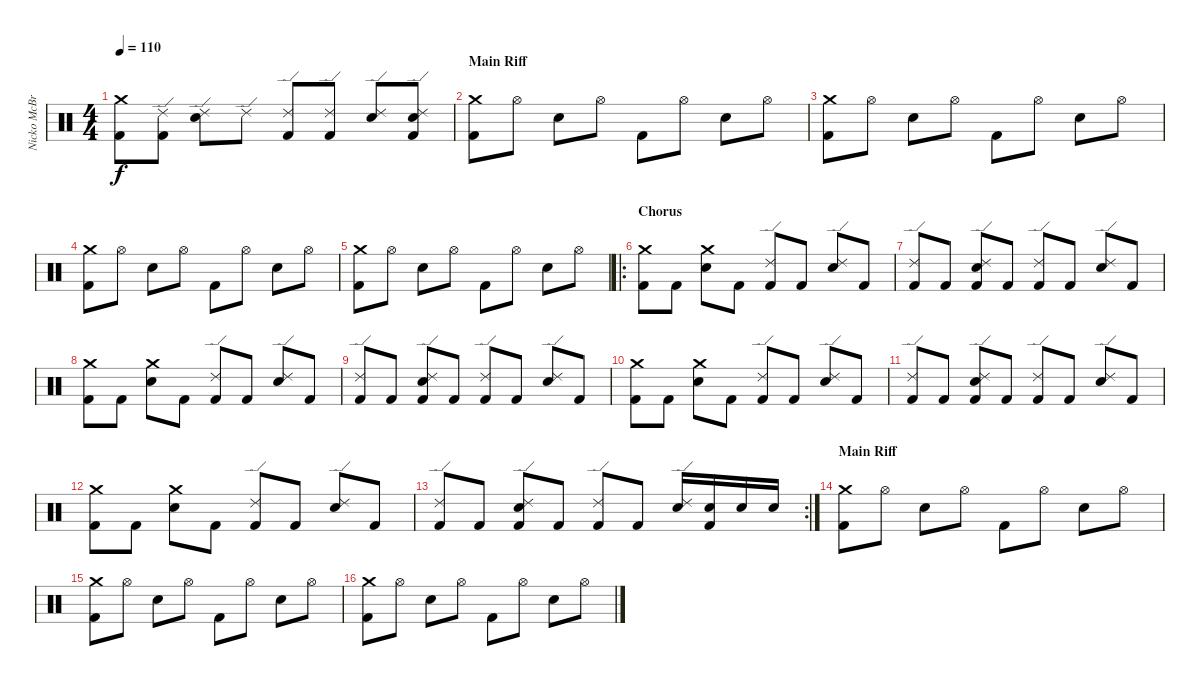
\track ("Nicko McBrain" "Nicko McBr") {instrument percussion}
\staff {score}
\articulation defaults
\ts (4 4)
\tempo 110
\clef neutral
\ks c
("Crash medium (hit)" "Kick (hit) 2").8{dy f} ("Ride (edge) 2" "Kick (hit) 2").8 ("Snare (hit) 2" "Ride (edge) 2").8 "Ride (edge) 2".8 ("Ride (edge) 2" "Kick (hit) 2").8 ("Ride (edge) 2" "Kick (hit) 2").8 ("Snare (hit) 2" "Ride (edge) 2").8 ("Snare (hit) 2" "Ride (edge) 2" "Kick (hit) 2").8 |
\section ("" "Main Riff")
("Crash medium (hit)" "Kick (hit) 2").8 "Hi-Hat (open)".8 "Snare (hit) 2".8 "Hi-Hat (open)".8 "Kick (hit) 2".8 "Hi-Hat (open)".8 "Snare (hit) 2".8 "Hi-Hat (open)".8 |
("Crash medium (hit)" "Kick (hit) 2").8 "Hi-Hat (open)".8 "Snare (hit) 2".8 "Hi-Hat (open)".8 "Kick (hit) 2".8 "Hi-Hat (open)".8 "Snare (hit) 2".8 "Hi-Hat (open)".8 |
("Crash medium (hit)" "Kick (hit) 2").8 "Hi-Hat (open)".8 "Snare (hit) 2".8 "Hi-Hat (open)".8 "Kick (hit) 2".8 "Hi-Hat (open)".8 "Snare (hit) 2".8 "Hi-Hat (open)".8 |
("Crash medium (hit)" "Kick (hit) 2").8 "Hi-Hat (open)".8 "Snare (hit) 2".8 "Hi-Hat (open)".8 "Kick (hit) 2".8 "Hi-Hat (open)".8 "Snare (hit) 2".8 "Hi-Hat (open)".8 |
\ro
\section ("" "Chorus")
("Crash medium (hit)" "Kick (hit) 2").8 "Kick (hit) 2".8 ("Snare (hit) 2" "Crash medium (hit)").8 "Kick (hit) 2".8 ("Ride (edge) 2" "Kick (hit) 2").8 "Kick (hit) 2".8 ("Snare (hit) 2" "Ride (edge) 2").8 "Kick (hit) 2".8 |
("Ride (edge) 2" "Kick (hit) 2").8 "Kick (hit) 2".8 ("Snare (hit) 2" "Ride (edge) 2" "Kick (hit) 2").8 "Kick (hit) 2".8 ("Ride (edge) 2" "Kick (hit) 2").8 "Kick (hit) 2".8 ("Snare (hit) 2" "Ride (edge) 2").8 "Kick (hit) 2".8 |
("Crash medium (hit)" "Kick (hit) 2").8 "Kick (hit) 2".8 ("Snare (hit) 2" "Crash medium (hit)").8 "Kick (hit) 2".8 ("Ride (edge) 2" "Kick (hit) 2").8 "Kick (hit) 2".8 ("Snare (hit) 2" "Ride (edge) 2").8 "Kick (hit) 2".8 |
("Ride (edge) 2" "Kick (hit) 2").8 "Kick (hit) 2".8 ("Snare (hit) 2" "Ride (edge) 2" "Kick (hit) 2").8 "Kick (hit) 2".8 ("Ride (edge) 2" "Kick (hit) 2").8 "Kick (hit) 2".8 ("Snare (hit) 2" "Ride (edge) 2").8 "Kick (hit) 2".8 |
("Crash medium (hit)" "Kick (hit) 2").8 "Kick (hit) 2".8 ("Snare (hit) 2" "Crash medium (hit)").8 "Kick (hit) 2".8 ("Ride (edge) 2" "Kick (hit) 2").8 "Kick (hit) 2".8 ("Snare (hit) 2" "Ride (edge) 2").8 "Kick (hit) 2".8 |
("Ride (edge) 2" "Kick (hit) 2").8 "Kick (hit) 2".8 ("Snare (hit) 2" "Ride (edge) 2" "Kick (hit) 2").8 "Kick (hit) 2".8 ("Ride (edge) 2" "Kick (hit) 2").8 "Kick (hit) 2".8 ("Snare (hit) 2" "Ride (edge) 2").8 "Kick (hit) 2".8 |
("Crash medium (hit)" "Kick (hit) 2").8 "Kick (hit) 2".8 ("Snare (hit) 2" "Crash medium (hit)").8 "Kick (hit) 2".8 ("Ride (edge) 2" "Kick (hit) 2").8 "Kick (hit) 2".8 ("Snare (hit) 2" "Ride (edge) 2").8 "Kick (hit) 2".8 |
\rc 2
("Ride (edge) 2" "Kick (hit) 2").8 "Kick (hit) 2".8 ("Snare (hit) 2" "Ride (edge) 2" "Kick (hit) 2").8 "Kick (hit) 2".8 ("Ride (edge) 2" "Kick (hit) 2").8 "Kick (hit) 2".8 ("Snare (hit) 2" "Ride (edge) 2").16 ("Snare (hit) 2" "Kick (hit) 2").16 "Snare (hit) 2".16 "Snare (hit) 2".16 |
\section ("" "Main Riff")
("Crash medium (hit)" "Kick (hit) 2").8 "Hi-Hat (open)".8 "Snare (hit) 2".8 "Hi-Hat (open)".8 "Kick (hit) 2".8 "Hi-Hat (open)".8 "Snare (hit) 2".8 "Hi-Hat (open)".8 |
("Crash medium (hit)" "Kick (hit) 2").8 "Hi-Hat (open)".8 "Snare (hit) 2".8 "Hi-Hat (open)".8 "Kick (hit) 2".8 "Hi-Hat (open)".8 "Snare (hit) 2".8 "Hi-Hat (open)".8 |
("Crash medium (hit)" "Kick (hit) 2").8 "Hi-Hat (open)".8 "Snare (hit) 2".8 "Hi-Hat (open)".8 "Kick (hit) 2".8 "Hi-Hat (open)".8 "Snare (hit) 2".8 "Hi-Hat (open)".8
